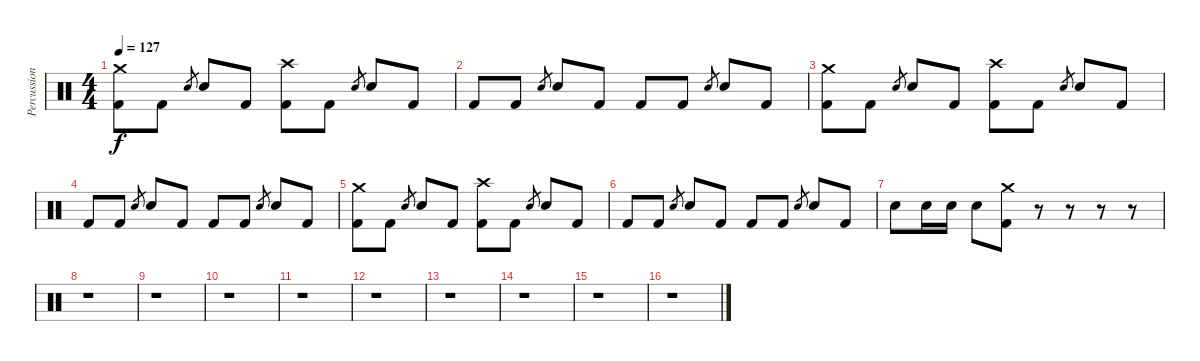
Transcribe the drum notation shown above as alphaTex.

\track ("Percussion" "Percussion") {instrument percussion}
\staff {score}
\articulation defaults
\ts (4 4)
\tempo 127
\clef neutral
\ks c
("Crash medium (hit)" "Kick (hit) 2").8{dy f} "Kick (hit) 2".8 "Electric Snare (hit)".8{gr} "Electric Snare (hit)".8 "Kick (hit) 2".8 ("Crash high (hit)" "Kick (hit) 2").8 "Kick (hit) 2".8 "Electric Snare (hit)".8{gr} "Electric Snare (hit)".8 "Kick (hit) 2".8 |
"Kick (hit) 2".8 "Kick (hit) 2".8 "Electric Snare (hit)".8{gr} "Electric Snare (hit)".8 "Kick (hit) 2".8 "Kick (hit) 2".8 "Kick (hit) 2".8 "Electric Snare (hit)".8{gr} "Electric Snare (hit)".8 "Kick (hit) 2".8 |
("Crash medium (hit)" "Kick (hit) 2").8 "Kick (hit) 2".8 "Electric Snare (hit)".8{gr} "Electric Snare (hit)".8 "Kick (hit) 2".8 ("Crash high (hit)" "Kick (hit) 2").8 "Kick (hit) 2".8 "Electric Snare (hit)".8{gr} "Electric Snare (hit)".8 "Kick (hit) 2".8 |
"Kick (hit) 2".8 "Kick (hit) 2".8 "Electric Snare (hit)".8{gr} "Electric Snare (hit)".8 "Kick (hit) 2".8 "Kick (hit) 2".8 "Kick (hit) 2".8 "Electric Snare (hit)".8{gr} "Electric Snare (hit)".8 "Kick (hit) 2".8 |
("Crash medium (hit)" "Kick (hit) 2").8 "Kick (hit) 2".8 "Electric Snare (hit)".8{gr} "Electric Snare (hit)".8 "Kick (hit) 2".8 ("Crash high (hit)" "Kick (hit) 2").8 "Kick (hit) 2".8 "Electric Snare (hit)".8{gr} "Electric Snare (hit)".8 "Kick (hit) 2".8 |
"Kick (hit) 2".8 "Kick (hit) 2".8 "Electric Snare (hit)".8{gr} "Electric Snare (hit)".8 "Kick (hit) 2".8 "Kick (hit) 2".8 "Kick (hit) 2".8 "Electric Snare (hit)".8{gr} "Electric Snare (hit)".8 "Kick (hit) 2".8 |
"Electric Snare (hit)".8 "Electric Snare (hit)".16 "Electric Snare (hit)".16 "Electric Snare (hit)".8 ("Crash medium (hit)" "Kick (hit) 2").8 r.8 r.8 r.8 r.8 |
r.1 |
r.1 |
r.1 |
r.1 |
r.1 |
r.1 |
r.1 |
r.1 |
r.1
